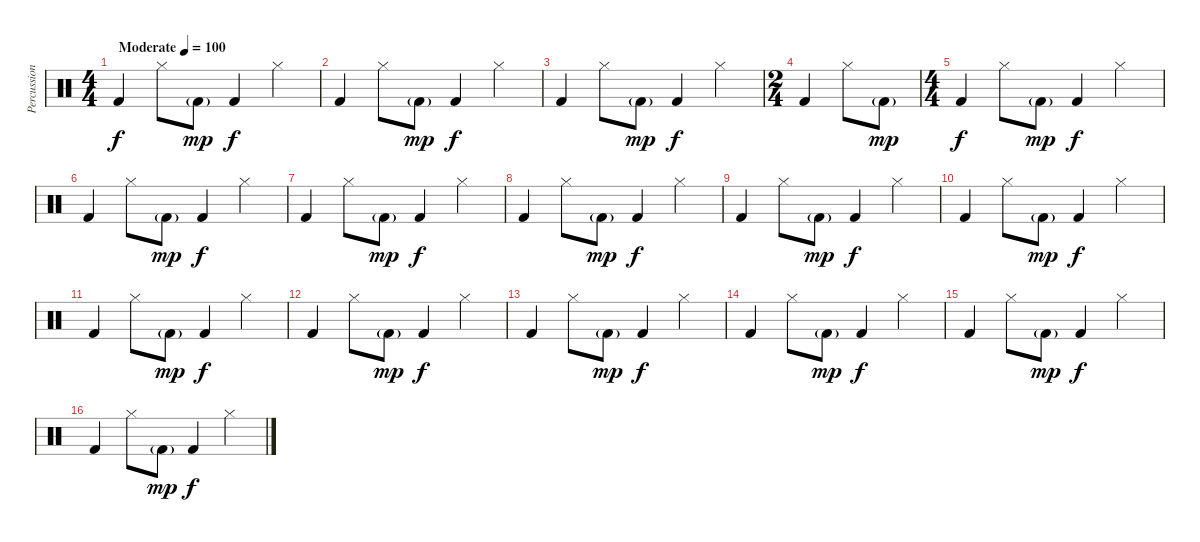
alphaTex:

\track ("Percussion" "Percussion") {instrument percussion}
\staff {score}
\articulation defaults
\ts (4 4)
\tempo (100 "Moderate")
\clef neutral
\ks c "Kick (hit) 2".4{dy f volume 5} "Hi-Hat (closed)".8{volume 11} "Kick (hit) 2"{g}.8{dy mp volume 5} "Kick (hit) 2".4{dy f} "Hi-Hat (closed)".4{volume 11}
|
"Kick (hit) 2".4{volume 5} "Hi-Hat (closed)".8{volume 11} "Kick (hit) 2"{g}.8{dy mp volume 5} "Kick (hit) 2".4{dy f} "Hi-Hat (closed)".4{volume 11} |
"Kick (hit) 2".4{volume 5} "Hi-Hat (closed)".8{volume 11} "Kick (hit) 2"{g}.8{dy mp volume 5} "Kick (hit) 2".4{dy f} "Hi-Hat (closed)".4{volume 11} |
\ts (2 4)
"Kick (hit) 2".4{volume 5} "Hi-Hat (closed)".8{volume 11} "Kick (hit) 2"{g}.8{dy mp volume 5} |
\ts (4 4)
"Kick (hit) 2".4{dy f volume 5} "Hi-Hat (closed)".8{volume 11} "Kick (hit) 2"{g}.8{dy mp volume 5} "Kick (hit) 2".4{dy f} "Hi-Hat (closed)".4{volume 11} |
"Kick (hit) 2".4{volume 5} "Hi-Hat (closed)".8{volume 11} "Kick (hit) 2"{g}.8{dy mp volume 5} "Kick (hit) 2".4{dy f} "Hi-Hat (closed)".4{volume 11} |
"Kick (hit) 2".4{volume 5} "Hi-Hat (closed)".8{volume 11} "Kick (hit) 2"{g}.8{dy mp volume 5} "Kick (hit) 2".4{dy f} "Hi-Hat (closed)".4{volume 11} |
"Kick (hit) 2".4{volume 5} "Hi-Hat (closed)".8{volume 11} "Kick (hit) 2"{g}.8{dy mp volume 5} "Kick (hit) 2".4{dy f} "Hi-Hat (closed)".4{volume 11} |
"Kick (hit) 2".4{volume 5} "Hi-Hat (closed)".8{volume 11} "Kick (hit) 2"{g}.8{dy mp volume 5} "Kick (hit) 2".4{dy f} "Hi-Hat (closed)".4{volume 11} |
"Kick (hit) 2".4{volume 5} "Hi-Hat (closed)".8{volume 11} "Kick (hit) 2"{g}.8{dy mp volume 5} "Kick (hit) 2".4{dy f} "Hi-Hat (closed)".4{volume 11} |
"Kick (hit) 2".4{volume 5} "Hi-Hat (closed)".8{volume 11} "Kick (hit) 2"{g}.8{dy mp volume 5} "Kick (hit) 2".4{dy f} "Hi-Hat (closed)".4{volume 11} |
"Kick (hit) 2".4{volume 5} "Hi-Hat (closed)".8{volume 11} "Kick (hit) 2"{g}.8{dy mp volume 5} "Kick (hit) 2".4{dy f} "Hi-Hat (closed)".4{volume 11} |
"Kick (hit) 2".4{volume 5} "Hi-Hat (closed)".8{volume 11} "Kick (hit) 2"{g}.8{dy mp volume 5} "Kick (hit) 2".4{dy f} "Hi-Hat (closed)".4{volume 11} |
"Kick (hit) 2".4{volume 5} "Hi-Hat (closed)".8{volume 11} "Kick (hit) 2"{g}.8{dy mp volume 5} "Kick (hit) 2".4{dy f} "Hi-Hat (closed)".4{volume 11} |
"Kick (hit) 2".4{volume 5} "Hi-Hat (closed)".8{volume 11} "Kick (hit) 2"{g}.8{dy mp volume 5} "Kick (hit) 2".4{dy f} "Hi-Hat (closed)".4{volume 11} |
"Kick (hit) 2".4{volume 5} "Hi-Hat (closed)".8{volume 11} "Kick (hit) 2"{g}.8{dy mp volume 5} "Kick (hit) 2".4{dy f} "Hi-Hat (closed)".4{volume 11}
